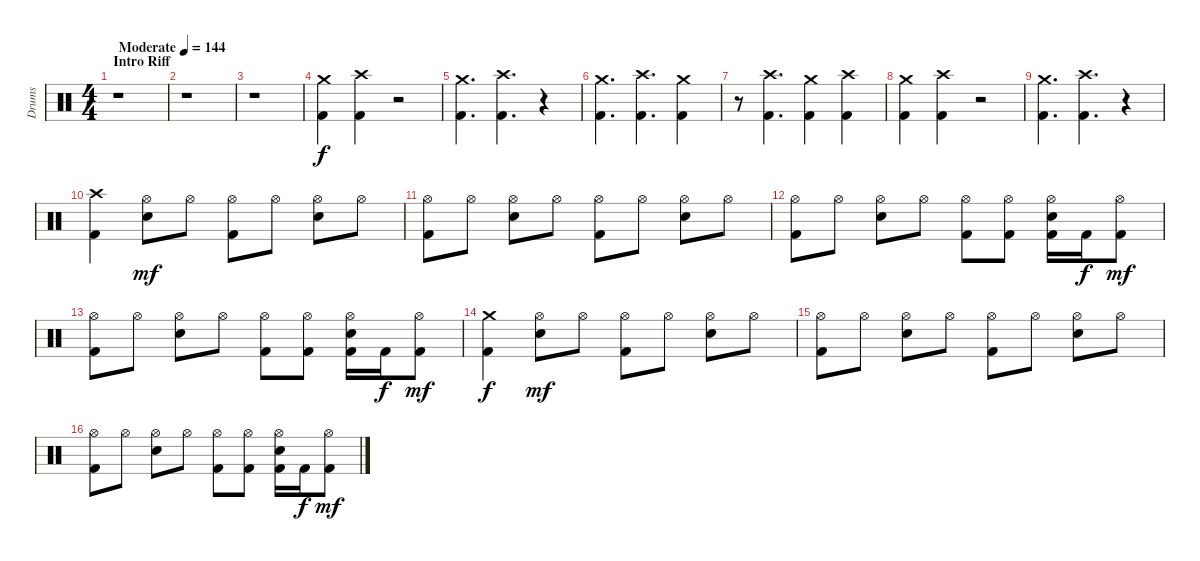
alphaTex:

\track ("Drums" "Drums") {instrument percussion}
\staff {score}
\articulation defaults
\ts (4 4)
\section ("" "Intro Riff")
\tempo (144 "Moderate")
\clef neutral
\ks c
r.1{dy f} |
r.1 |
r.1 |
("Crash medium (hit)" "Kick (hit) 2").4 ("Crash high (hit)" "Kick (hit) 2").4 r.2 |
("Crash medium (hit)" "Kick (hit) 2").4{d} ("Crash high (hit)" "Kick (hit) 2").4{d} r.4 |
("Crash medium (hit)" "Kick (hit) 2").4{d} ("Crash high (hit)" "Kick (hit) 2").4{d} ("Crash medium (hit)" "Kick (hit) 2").4 |
r.8 ("Crash high (hit)" "Kick (hit) 2").4{d} ("Crash medium (hit)" "Kick (hit) 2").4 ("Crash high (hit)" "Kick (hit) 2").4 |
("Crash medium (hit)" "Kick (hit) 2").4 ("Crash high (hit)" "Kick (hit) 2").4 r.2 |
("Crash medium (hit)" "Kick (hit) 2").4{d} ("Crash high (hit)" "Kick (hit) 2").4{d} r.4 |
("Crash high (hit)" "Kick (hit) 2").4 ("Hi-Hat (open)" "Snare (hit) 2").8{dy mf} "Hi-Hat (open)".8 ("Hi-Hat (open)" "Kick (hit) 2").8 "Hi-Hat (open)".8 ("Hi-Hat (open)" "Snare (hit) 2").8 "Hi-Hat (open)".8 |
("Hi-Hat (open)" "Kick (hit) 2").8 "Hi-Hat (open)".8 ("Hi-Hat (open)" "Snare (hit) 2").8 "Hi-Hat (open)".8 ("Hi-Hat (open)" "Kick (hit) 2").8 "Hi-Hat (open)".8 ("Hi-Hat (open)" "Snare (hit) 2").8 "Hi-Hat (open)".8 |
("Hi-Hat (open)" "Kick (hit) 2").8 "Hi-Hat (open)".8 ("Hi-Hat (open)" "Snare (hit) 2").8 "Hi-Hat (open)".8 ("Hi-Hat (open)" "Kick (hit) 2").8 ("Hi-Hat (open)" "Kick (hit) 2").8 ("Hi-Hat (open)" "Snare (hit) 2" "Kick (hit) 2").16 "Kick (hit) 2".16{dy f} ("Hi-Hat (open)" "Kick (hit) 2").8{dy mf} |
("Hi-Hat (open)" "Kick (hit) 2").8 "Hi-Hat (open)".8 ("Hi-Hat (open)" "Snare (hit) 2").8 "Hi-Hat (open)".8 ("Hi-Hat (open)" "Kick (hit) 2").8 ("Hi-Hat (open)" "Kick (hit) 2").8 ("Hi-Hat (open)" "Snare (hit) 2" "Kick (hit) 2").16 "Kick (hit) 2".16{dy f} ("Hi-Hat (open)" "Kick (hit) 2").8{dy mf} |
("Crash medium (hit)" "Kick (hit) 2").4{dy f} ("Hi-Hat (open)" "Snare (hit) 2").8{dy mf} "Hi-Hat (open)".8 ("Hi-Hat (open)" "Kick (hit) 2").8 "Hi-Hat (open)".8 ("Hi-Hat (open)" "Snare (hit) 2").8 "Hi-Hat (open)".8 |
("Hi-Hat (open)" "Kick (hit) 2").8 "Hi-Hat (open)".8 ("Hi-Hat (open)" "Snare (hit) 2").8 "Hi-Hat (open)".8 ("Hi-Hat (open)" "Kick (hit) 2").8 "Hi-Hat (open)".8 ("Hi-Hat (open)" "Snare (hit) 2").8 "Hi-Hat (open)".8 |
("Hi-Hat (open)" "Kick (hit) 2").8 "Hi-Hat (open)".8 ("Hi-Hat (open)" "Snare (hit) 2").8 "Hi-Hat (open)".8 ("Hi-Hat (open)" "Kick (hit) 2").8 ("Hi-Hat (open)" "Kick (hit) 2").8 ("Hi-Hat (open)" "Snare (hit) 2" "Kick (hit) 2").16 "Kick (hit) 2".16{dy f} ("Hi-Hat (open)" "Kick (hit) 2").8{dy mf}
